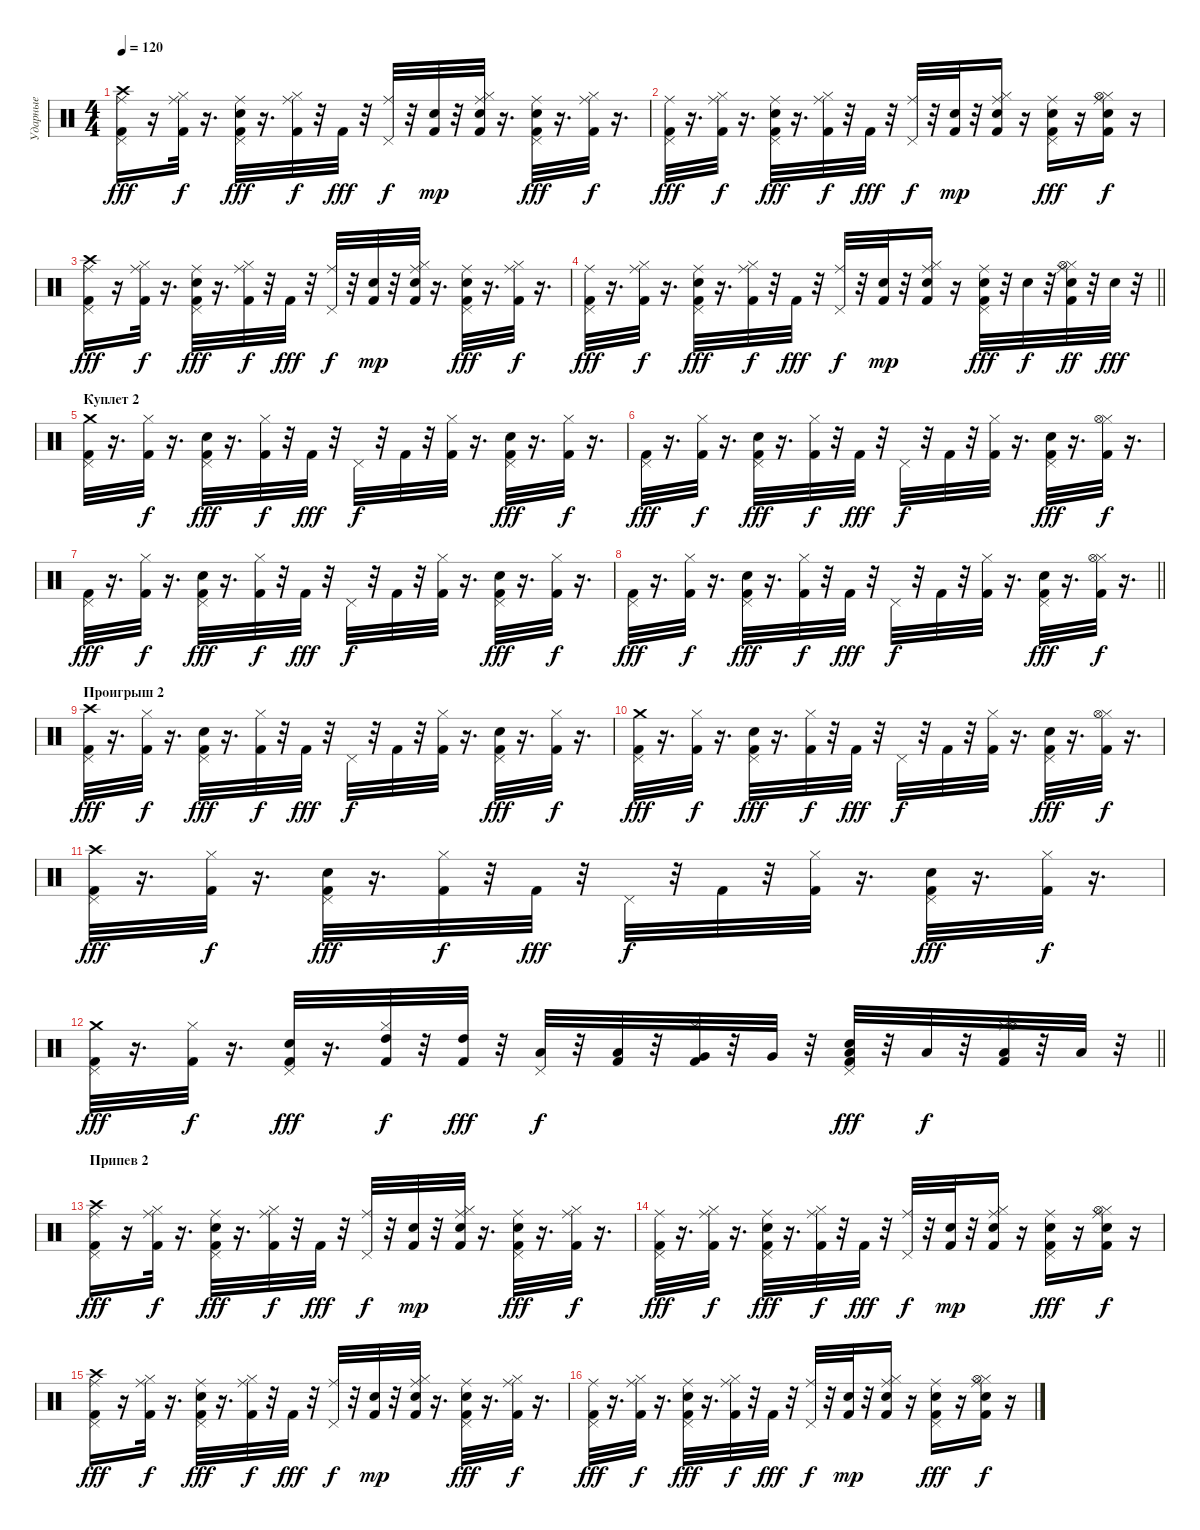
\track ("Ударные" "Ударные") {instrument percussion}
\staff {score}
\articulation defaults
\ts (4 4)
\tempo 120
\clef neutral
\ks c
("Kick (hit) 2" "Pedal Hi-Hat (hit)" "Crash high (hit)" "Ride (middle)").16{dy fff} r.16 ("Kick (hit) 2" "Hi-Hat (closed)" "Ride (middle)").32{dy f} r.16{d} ("Kick (hit) 2" "Snare (hit) 2" "Pedal Hi-Hat (hit)" "Ride (middle)").32{dy fff} r.16{d} ("Kick (hit) 2" "Hi-Hat (closed)" "Ride (middle)").32{dy f} r.32 "Kick (hit) 2".32{dy fff} r.32 ("Pedal Hi-Hat (hit)" "Ride (middle)").32{dy f} r.32 ("Kick (hit) 2" "Snare (hit) 2").32{dy mp} r.32 ("Kick (hit) 2" "Snare (hit) 2" "Hi-Hat (closed)" "Ride (middle)").32 r.16{d} ("Kick (hit) 2" "Snare (hit) 2" "Pedal Hi-Hat (hit)" "Ride (middle)").32{dy fff} r.16{d} ("Kick (hit) 2" "Hi-Hat (closed)" "Ride (middle)").32{dy f} r.16{d} |
("Kick (hit) 2" "Pedal Hi-Hat (hit)" "Ride (middle)").32{dy fff} r.16{d} ("Kick (hit) 2" "Hi-Hat (closed)" "Ride (middle)").32{dy f} r.16{d} ("Kick (hit) 2" "Snare (hit) 2" "Pedal Hi-Hat (hit)" "Ride (middle)").32{dy fff} r.16{d} ("Kick (hit) 2" "Hi-Hat (closed)" "Ride (middle)").32{dy f} r.32 "Kick (hit) 2".32{dy fff} r.32 ("Pedal Hi-Hat (hit)" "Ride (middle)").32{dy f} r.32 ("Kick (hit) 2" "Snare (hit) 2").32{dy mp} r.32 ("Kick (hit) 2" "Snare (hit) 2" "Hi-Hat (closed)" "Ride (middle)").16 r.16 ("Kick (hit) 2" "Snare (hit) 2" "Pedal Hi-Hat (hit)" "Ride (middle)").16{dy fff} r.16 ("Kick (hit) 2" "Snare (hit) 2" "Hi-Hat (closed)" "Hi-Hat (open)" "Ride (middle)").16{dy f} r.16 |
("Kick (hit) 2" "Pedal Hi-Hat (hit)" "Crash high (hit)" "Ride (middle)").16{dy fff} r.16 ("Kick (hit) 2" "Hi-Hat (closed)" "Ride (middle)").32{dy f} r.16{d} ("Kick (hit) 2" "Snare (hit) 2" "Pedal Hi-Hat (hit)" "Ride (middle)").32{dy fff} r.16{d} ("Kick (hit) 2" "Hi-Hat (closed)" "Ride (middle)").32{dy f} r.32 "Kick (hit) 2".32{dy fff} r.32 ("Pedal Hi-Hat (hit)" "Ride (middle)").32{dy f} r.32 ("Kick (hit) 2" "Snare (hit) 2").32{dy mp} r.32 ("Kick (hit) 2" "Snare (hit) 2" "Hi-Hat (closed)" "Ride (middle)").32 r.16{d} ("Kick (hit) 2" "Snare (hit) 2" "Pedal Hi-Hat (hit)" "Ride (middle)").32{dy fff} r.16{d} ("Kick (hit) 2" "Hi-Hat (closed)" "Ride (middle)").32{dy f} r.16{d} |
\barLineRight lightlight
("Kick (hit) 2" "Pedal Hi-Hat (hit)" "Ride (middle)").32{dy fff} r.16{d} ("Kick (hit) 2" "Hi-Hat (closed)" "Ride (middle)").32{dy f} r.16{d} ("Kick (hit) 2" "Snare (hit) 2" "Pedal Hi-Hat (hit)" "Ride (middle)").32{dy fff} r.16{d} ("Kick (hit) 2" "Hi-Hat (closed)" "Ride (middle)").32{dy f} r.32 "Kick (hit) 2".32{dy fff} r.32 ("Pedal Hi-Hat (hit)" "Ride (middle)").32{dy f} r.32 ("Kick (hit) 2" "Snare (hit) 2").32{dy mp} r.32 ("Kick (hit) 2" "Snare (hit) 2" "Hi-Hat (closed)" "Ride (middle)").16 r.16 ("Kick (hit) 2" "Snare (hit) 2" "Pedal Hi-Hat (hit)" "Ride (middle)").32{dy fff} r.32 "Snare (hit) 2".32{dy f} r.32 ("Kick (hit) 2" "Snare (hit) 2" "Hi-Hat (closed)" "Hi-Hat (open)" "Ride (middle)").32{dy ff} r.32 "Snare (hit) 2".32{dy fff} r.32 |
\section ("" "Куплет 2")
("Kick (hit) 2" "Pedal Hi-Hat (hit)" "Crash medium (hit)").32 r.16{d} ("Kick (hit) 2" "Hi-Hat (closed)").32{dy f} r.16{d} ("Kick (hit) 2" "Snare (hit) 2" "Pedal Hi-Hat (hit)").32{dy fff} r.16{d} ("Kick (hit) 2" "Hi-Hat (closed)").32{dy f} r.32 "Kick (hit) 2".32{dy fff} r.32 "Pedal Hi-Hat (hit)".32{dy f} r.32 "Kick (hit) 2".32 r.32 ("Kick (hit) 2" "Hi-Hat (closed)").32 r.16{d} ("Kick (hit) 2" "Snare (hit) 2" "Pedal Hi-Hat (hit)").32{dy fff} r.16{d} ("Kick (hit) 2" "Hi-Hat (closed)").32{dy f} r.16{d} |
("Kick (hit) 2" "Pedal Hi-Hat (hit)").32{dy fff} r.16{d} ("Kick (hit) 2" "Hi-Hat (closed)").32{dy f} r.16{d} ("Kick (hit) 2" "Snare (hit) 2" "Pedal Hi-Hat (hit)").32{dy fff} r.16{d} ("Kick (hit) 2" "Hi-Hat (closed)").32{dy f} r.32 "Kick (hit) 2".32{dy fff} r.32 "Pedal Hi-Hat (hit)".32{dy f} r.32 "Kick (hit) 2".32 r.32 ("Kick (hit) 2" "Hi-Hat (closed)").32 r.16{d} ("Kick (hit) 2" "Snare (hit) 2" "Pedal Hi-Hat (hit)").32{dy fff} r.16{d} ("Kick (hit) 2" "Hi-Hat (closed)" "Hi-Hat (open)").32{dy f} r.16{d} |
("Kick (hit) 2" "Pedal Hi-Hat (hit)").32{dy fff} r.16{d} ("Kick (hit) 2" "Hi-Hat (closed)").32{dy f} r.16{d} ("Kick (hit) 2" "Snare (hit) 2" "Pedal Hi-Hat (hit)").32{dy fff} r.16{d} ("Kick (hit) 2" "Hi-Hat (closed)").32{dy f} r.32 "Kick (hit) 2".32{dy fff} r.32 "Pedal Hi-Hat (hit)".32{dy f} r.32 "Kick (hit) 2".32 r.32 ("Kick (hit) 2" "Hi-Hat (closed)").32 r.16{d} ("Kick (hit) 2" "Snare (hit) 2" "Pedal Hi-Hat (hit)").32{dy fff} r.16{d} ("Kick (hit) 2" "Hi-Hat (closed)").32{dy f} r.16{d} |
\barLineRight lightlight
("Kick (hit) 2" "Pedal Hi-Hat (hit)").32{dy fff} r.16{d} ("Kick (hit) 2" "Hi-Hat (closed)").32{dy f} r.16{d} ("Kick (hit) 2" "Snare (hit) 2" "Pedal Hi-Hat (hit)").32{dy fff} r.16{d} ("Kick (hit) 2" "Hi-Hat (closed)").32{dy f} r.32 "Kick (hit) 2".32{dy fff} r.32 "Pedal Hi-Hat (hit)".32{dy f} r.32 "Kick (hit) 2".32 r.32 ("Kick (hit) 2" "Hi-Hat (closed)").32 r.16{d} ("Kick (hit) 2" "Snare (hit) 2" "Pedal Hi-Hat (hit)").32{dy fff} r.16{d} ("Kick (hit) 2" "Hi-Hat (closed)" "Hi-Hat (open)").32{dy f} r.16{d} |
\section ("" "Проигрыш 2")
("Kick (hit) 2" "Pedal Hi-Hat (hit)" "Crash high (hit)").32{dy fff} r.16{d} ("Kick (hit) 2" "Hi-Hat (closed)").32{dy f} r.16{d} ("Kick (hit) 2" "Snare (hit) 2" "Pedal Hi-Hat (hit)").32{dy fff} r.16{d} ("Kick (hit) 2" "Hi-Hat (closed)").32{dy f} r.32 "Kick (hit) 2".32{dy fff} r.32 "Pedal Hi-Hat (hit)".32{dy f} r.32 "Kick (hit) 2".32 r.32 ("Kick (hit) 2" "Hi-Hat (closed)").32 r.16{d} ("Kick (hit) 2" "Snare (hit) 2" "Pedal Hi-Hat (hit)").32{dy fff} r.16{d} ("Kick (hit) 2" "Hi-Hat (closed)").32{dy f} r.16{d} |
("Kick (hit) 2" "Pedal Hi-Hat (hit)" "Crash medium (hit)").32{dy fff} r.16{d} ("Kick (hit) 2" "Hi-Hat (closed)").32{dy f} r.16{d} ("Kick (hit) 2" "Snare (hit) 2" "Pedal Hi-Hat (hit)").32{dy fff} r.16{d} ("Kick (hit) 2" "Hi-Hat (closed)").32{dy f} r.32 "Kick (hit) 2".32{dy fff} r.32 "Pedal Hi-Hat (hit)".32{dy f} r.32 "Kick (hit) 2".32 r.32 ("Kick (hit) 2" "Hi-Hat (closed)").32 r.16{d} ("Kick (hit) 2" "Snare (hit) 2" "Pedal Hi-Hat (hit)").32{dy fff} r.16{d} ("Kick (hit) 2" "Hi-Hat (closed)" "Hi-Hat (open)").32{dy f} r.16{d} |
("Kick (hit) 2" "Pedal Hi-Hat (hit)" "Crash high (hit)").32{dy fff} r.16{d} ("Kick (hit) 2" "Hi-Hat (closed)").32{dy f} r.16{d} ("Kick (hit) 2" "Snare (hit) 2" "Pedal Hi-Hat (hit)").32{dy fff} r.16{d} ("Kick (hit) 2" "Hi-Hat (closed)").32{dy f} r.32 "Kick (hit) 2".32{dy fff} r.32 "Pedal Hi-Hat (hit)".32{dy f} r.32 "Kick (hit) 2".32 r.32 ("Kick (hit) 2" "Hi-Hat (closed)").32 r.16{d} ("Kick (hit) 2" "Snare (hit) 2" "Pedal Hi-Hat (hit)").32{dy fff} r.16{d} ("Kick (hit) 2" "Hi-Hat (closed)").32{dy f} r.16{d} |
\barLineRight lightlight
("Kick (hit) 2" "Pedal Hi-Hat (hit)" "Crash medium (hit)").32{dy fff} r.16{d} ("Kick (hit) 2" "Hi-Hat (closed)").32{dy f} r.16{d} ("Kick (hit) 2" "Snare (hit) 2" "Pedal Hi-Hat (hit)").32{dy fff} r.16{d} ("Kick (hit) 2" "Hi-Hat (closed)" "High Tom (hit)").32{dy f} r.32 ("Kick (hit) 2" "High Tom (hit)").32{dy fff} r.32 ("Pedal Hi-Hat (hit)" "Low Tom (hit)").32{dy f} r.32 ("Kick (hit) 2" "Low Tom (hit)").32 r.32 ("Kick (hit) 2" "Hi-Hat (closed)" "Very Low Tom (hit)").32 r.32 "Very Low Tom (hit)".32 r.32 ("Kick (hit) 2" "Snare (hit) 2" "Low Floor Tom (hit)" "Pedal Hi-Hat (hit)").32{dy fff} r.32 "Low Floor Tom (hit)".32{dy f} r.32 ("Kick (hit) 2" "Low Floor Tom (hit)" "Hi-Hat (closed)" "Hi-Hat (open)").32 r.32 "Low Floor Tom (hit)".32 r.32 |
\section ("" "Припев 2")
("Kick (hit) 2" "Pedal Hi-Hat (hit)" "Crash high (hit)" "Ride (middle)").16{dy fff} r.16 ("Kick (hit) 2" "Hi-Hat (closed)" "Ride (middle)").32{dy f} r.16{d} ("Kick (hit) 2" "Snare (hit) 2" "Pedal Hi-Hat (hit)" "Ride (middle)").32{dy fff} r.16{d} ("Kick (hit) 2" "Hi-Hat (closed)" "Ride (middle)").32{dy f} r.32 "Kick (hit) 2".32{dy fff} r.32 ("Pedal Hi-Hat (hit)" "Ride (middle)").32{dy f} r.32 ("Kick (hit) 2" "Snare (hit) 2").32{dy mp} r.32 ("Kick (hit) 2" "Snare (hit) 2" "Hi-Hat (closed)" "Ride (middle)").32 r.16{d} ("Kick (hit) 2" "Snare (hit) 2" "Pedal Hi-Hat (hit)" "Ride (middle)").32{dy fff} r.16{d} ("Kick (hit) 2" "Hi-Hat (closed)" "Ride (middle)").32{dy f} r.16{d} |
("Kick (hit) 2" "Pedal Hi-Hat (hit)" "Ride (middle)").32{dy fff} r.16{d} ("Kick (hit) 2" "Hi-Hat (closed)" "Ride (middle)").32{dy f} r.16{d} ("Kick (hit) 2" "Snare (hit) 2" "Pedal Hi-Hat (hit)" "Ride (middle)").32{dy fff} r.16{d} ("Kick (hit) 2" "Hi-Hat (closed)" "Ride (middle)").32{dy f} r.32 "Kick (hit) 2".32{dy fff} r.32 ("Pedal Hi-Hat (hit)" "Ride (middle)").32{dy f} r.32 ("Kick (hit) 2" "Snare (hit) 2").32{dy mp} r.32 ("Kick (hit) 2" "Snare (hit) 2" "Hi-Hat (closed)" "Ride (middle)").16 r.16 ("Kick (hit) 2" "Snare (hit) 2" "Pedal Hi-Hat (hit)" "Ride (middle)").16{dy fff} r.16 ("Kick (hit) 2" "Snare (hit) 2" "Hi-Hat (closed)" "Hi-Hat (open)" "Ride (middle)").16{dy f} r.16 |
("Kick (hit) 2" "Pedal Hi-Hat (hit)" "Crash high (hit)" "Ride (middle)").16{dy fff} r.16 ("Kick (hit) 2" "Hi-Hat (closed)" "Ride (middle)").32{dy f} r.16{d} ("Kick (hit) 2" "Snare (hit) 2" "Pedal Hi-Hat (hit)" "Ride (middle)").32{dy fff} r.16{d} ("Kick (hit) 2" "Hi-Hat (closed)" "Ride (middle)").32{dy f} r.32 "Kick (hit) 2".32{dy fff} r.32 ("Pedal Hi-Hat (hit)" "Ride (middle)").32{dy f} r.32 ("Kick (hit) 2" "Snare (hit) 2").32{dy mp} r.32 ("Kick (hit) 2" "Snare (hit) 2" "Hi-Hat (closed)" "Ride (middle)").32 r.16{d} ("Kick (hit) 2" "Snare (hit) 2" "Pedal Hi-Hat (hit)" "Ride (middle)").32{dy fff} r.16{d} ("Kick (hit) 2" "Hi-Hat (closed)" "Ride (middle)").32{dy f} r.16{d} |
("Kick (hit) 2" "Pedal Hi-Hat (hit)" "Ride (middle)").32{dy fff} r.16{d} ("Kick (hit) 2" "Hi-Hat (closed)" "Ride (middle)").32{dy f} r.16{d} ("Kick (hit) 2" "Snare (hit) 2" "Pedal Hi-Hat (hit)" "Ride (middle)").32{dy fff} r.16{d} ("Kick (hit) 2" "Hi-Hat (closed)" "Ride (middle)").32{dy f} r.32 "Kick (hit) 2".32{dy fff} r.32 ("Pedal Hi-Hat (hit)" "Ride (middle)").32{dy f} r.32 ("Kick (hit) 2" "Snare (hit) 2").32{dy mp} r.32 ("Kick (hit) 2" "Snare (hit) 2" "Hi-Hat (closed)" "Ride (middle)").16 r.16 ("Kick (hit) 2" "Snare (hit) 2" "Pedal Hi-Hat (hit)" "Ride (middle)").16{dy fff} r.16 ("Kick (hit) 2" "Snare (hit) 2" "Hi-Hat (closed)" "Hi-Hat (open)" "Ride (middle)").16{dy f} r.16
